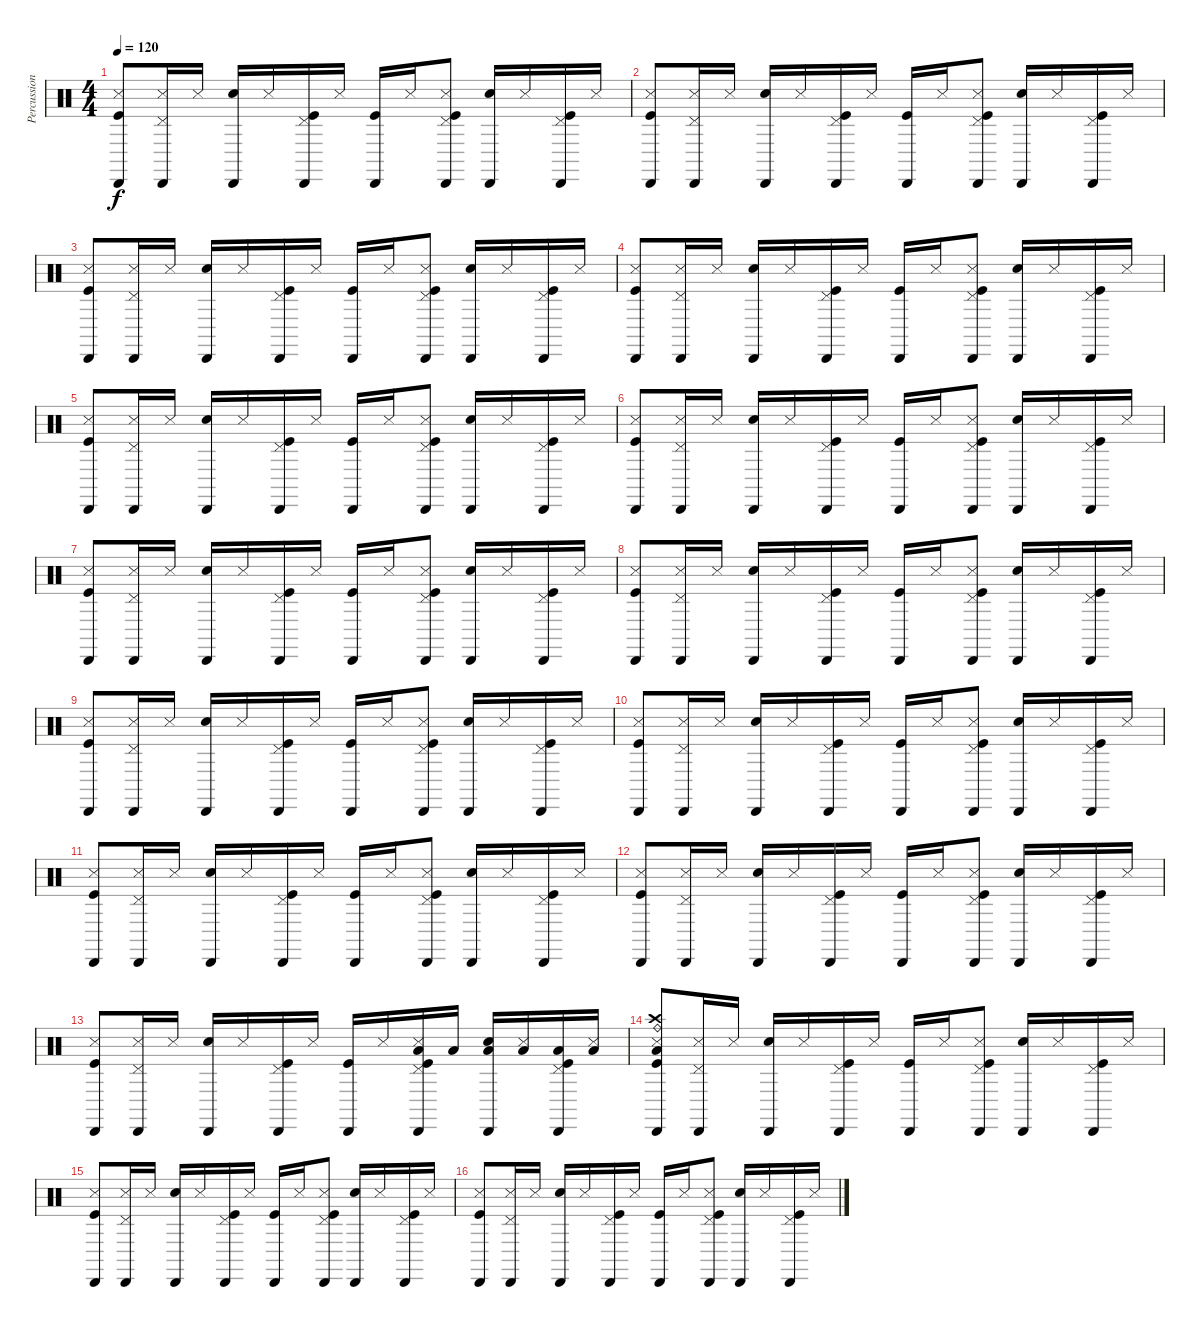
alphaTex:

\track ("Percussions" "Percussion") {instrument percussion}
\staff {score}
\articulation defaults
\ts (4 4)
\tempo 120
\clef neutral
\ks c
("Kick (hit)" "Cabasa (hit)" "Metronome (hit)").8{dy f} ("Cabasa (hit)" "Pedal Hi-Hat (hit)" "Metronome (hit)").16 "Metronome (hit)".16 ("Snare (hit) 2" "Cabasa (hit)").16 "Metronome (hit)".16 ("Kick (hit)" "Cabasa (hit)" "Pedal Hi-Hat (hit)").16 "Metronome (hit)".16 ("Kick (hit)" "Cabasa (hit)").16 "Metronome (hit)".16 ("Kick (hit)" "Cabasa (hit)" "Pedal Hi-Hat (hit)" "Metronome (hit)").8 ("Snare (hit) 2" "Cabasa (hit)").16 "Metronome (hit)".16 ("Kick (hit)" "Cabasa (hit)" "Pedal Hi-Hat (hit)").16 "Metronome (hit)".16 |
("Metronome (hit)" "Cabasa (hit)" "Kick (hit)").8 ("Cabasa (hit)" "Pedal Hi-Hat (hit)" "Metronome (hit)").16 "Metronome (hit)".16 ("Snare (hit) 2" "Cabasa (hit)").16 "Metronome (hit)".16 ("Kick (hit)" "Cabasa (hit)" "Pedal Hi-Hat (hit)").16 "Metronome (hit)".16 ("Kick (hit)" "Cabasa (hit)").16 "Metronome (hit)".16 ("Kick (hit)" "Cabasa (hit)" "Pedal Hi-Hat (hit)" "Metronome (hit)").8 ("Snare (hit) 2" "Cabasa (hit)").16 "Metronome (hit)".16 ("Kick (hit)" "Cabasa (hit)" "Pedal Hi-Hat (hit)").16 "Metronome (hit)".16 |
("Kick (hit)" "Cabasa (hit)" "Metronome (hit)").8 ("Cabasa (hit)" "Pedal Hi-Hat (hit)" "Metronome (hit)").16 "Metronome (hit)".16 ("Snare (hit) 2" "Cabasa (hit)").16 "Metronome (hit)".16 ("Kick (hit)" "Cabasa (hit)" "Pedal Hi-Hat (hit)").16 "Metronome (hit)".16 ("Kick (hit)" "Cabasa (hit)").16 "Metronome (hit)".16 ("Kick (hit)" "Cabasa (hit)" "Pedal Hi-Hat (hit)" "Metronome (hit)").8 ("Snare (hit) 2" "Cabasa (hit)").16 "Metronome (hit)".16 ("Kick (hit)" "Cabasa (hit)" "Pedal Hi-Hat (hit)").16 "Metronome (hit)".16 |
("Metronome (hit)" "Cabasa (hit)" "Kick (hit)").8 ("Cabasa (hit)" "Pedal Hi-Hat (hit)" "Metronome (hit)").16 "Metronome (hit)".16 ("Snare (hit) 2" "Cabasa (hit)").16 "Metronome (hit)".16 ("Kick (hit)" "Cabasa (hit)" "Pedal Hi-Hat (hit)").16 "Metronome (hit)".16 ("Kick (hit)" "Cabasa (hit)").16 "Metronome (hit)".16 ("Kick (hit)" "Cabasa (hit)" "Pedal Hi-Hat (hit)" "Metronome (hit)").8 ("Snare (hit) 2" "Cabasa (hit)").16 "Metronome (hit)".16 ("Kick (hit)" "Cabasa (hit)" "Pedal Hi-Hat (hit)").16 "Metronome (hit)".16 |
("Kick (hit)" "Cabasa (hit)" "Metronome (hit)").8 ("Cabasa (hit)" "Pedal Hi-Hat (hit)" "Metronome (hit)").16 "Metronome (hit)".16 ("Snare (hit) 2" "Cabasa (hit)").16 "Metronome (hit)".16 ("Kick (hit)" "Cabasa (hit)" "Pedal Hi-Hat (hit)").16 "Metronome (hit)".16 ("Kick (hit)" "Cabasa (hit)").16 "Metronome (hit)".16 ("Kick (hit)" "Cabasa (hit)" "Pedal Hi-Hat (hit)" "Metronome (hit)").8 ("Snare (hit) 2" "Cabasa (hit)").16 "Metronome (hit)".16 ("Kick (hit)" "Cabasa (hit)" "Pedal Hi-Hat (hit)").16 "Metronome (hit)".16 |
("Metronome (hit)" "Cabasa (hit)" "Kick (hit)").8 ("Cabasa (hit)" "Pedal Hi-Hat (hit)" "Metronome (hit)").16 "Metronome (hit)".16 ("Snare (hit) 2" "Cabasa (hit)").16 "Metronome (hit)".16 ("Kick (hit)" "Cabasa (hit)" "Pedal Hi-Hat (hit)").16 "Metronome (hit)".16 ("Kick (hit)" "Cabasa (hit)").16 "Metronome (hit)".16 ("Kick (hit)" "Cabasa (hit)" "Pedal Hi-Hat (hit)" "Metronome (hit)").8 ("Snare (hit) 2" "Cabasa (hit)").16 "Metronome (hit)".16 ("Kick (hit)" "Cabasa (hit)" "Pedal Hi-Hat (hit)").16 "Metronome (hit)".16 |
("Kick (hit)" "Cabasa (hit)" "Metronome (hit)").8 ("Cabasa (hit)" "Pedal Hi-Hat (hit)" "Metronome (hit)").16 "Metronome (hit)".16 ("Snare (hit) 2" "Cabasa (hit)").16 "Metronome (hit)".16 ("Kick (hit)" "Cabasa (hit)" "Pedal Hi-Hat (hit)").16 "Metronome (hit)".16 ("Kick (hit)" "Cabasa (hit)").16 "Metronome (hit)".16 ("Kick (hit)" "Cabasa (hit)" "Pedal Hi-Hat (hit)" "Metronome (hit)").8 ("Snare (hit) 2" "Cabasa (hit)").16 "Metronome (hit)".16 ("Kick (hit)" "Cabasa (hit)" "Pedal Hi-Hat (hit)").16 "Metronome (hit)".16 |
("Metronome (hit)" "Cabasa (hit)" "Kick (hit)").8 ("Cabasa (hit)" "Pedal Hi-Hat (hit)" "Metronome (hit)").16 "Metronome (hit)".16 ("Snare (hit) 2" "Cabasa (hit)").16 "Metronome (hit)".16 ("Kick (hit)" "Cabasa (hit)" "Pedal Hi-Hat (hit)").16 "Metronome (hit)".16 ("Kick (hit)" "Cabasa (hit)").16 "Metronome (hit)".16 ("Kick (hit)" "Cabasa (hit)" "Pedal Hi-Hat (hit)" "Metronome (hit)").8 ("Snare (hit) 2" "Cabasa (hit)").16 "Metronome (hit)".16 ("Kick (hit)" "Cabasa (hit)" "Pedal Hi-Hat (hit)").16 "Metronome (hit)".16 |
("Kick (hit)" "Cabasa (hit)" "Metronome (hit)").8 ("Cabasa (hit)" "Pedal Hi-Hat (hit)" "Metronome (hit)").16 "Metronome (hit)".16 ("Snare (hit) 2" "Cabasa (hit)").16 "Metronome (hit)".16 ("Kick (hit)" "Cabasa (hit)" "Pedal Hi-Hat (hit)").16 "Metronome (hit)".16 ("Kick (hit)" "Cabasa (hit)").16 "Metronome (hit)".16 ("Kick (hit)" "Cabasa (hit)" "Pedal Hi-Hat (hit)" "Metronome (hit)").8 ("Snare (hit) 2" "Cabasa (hit)").16 "Metronome (hit)".16 ("Kick (hit)" "Cabasa (hit)" "Pedal Hi-Hat (hit)").16 "Metronome (hit)".16 |
("Metronome (hit)" "Cabasa (hit)" "Kick (hit)").8 ("Cabasa (hit)" "Pedal Hi-Hat (hit)" "Metronome (hit)").16 "Metronome (hit)".16 ("Snare (hit) 2" "Cabasa (hit)").16 "Metronome (hit)".16 ("Kick (hit)" "Cabasa (hit)" "Pedal Hi-Hat (hit)").16 "Metronome (hit)".16 ("Kick (hit)" "Cabasa (hit)").16 "Metronome (hit)".16 ("Kick (hit)" "Cabasa (hit)" "Pedal Hi-Hat (hit)" "Metronome (hit)").8 ("Snare (hit) 2" "Cabasa (hit)").16 "Metronome (hit)".16 ("Kick (hit)" "Cabasa (hit)" "Pedal Hi-Hat (hit)").16 "Metronome (hit)".16 |
("Kick (hit)" "Cabasa (hit)" "Metronome (hit)").8 ("Cabasa (hit)" "Pedal Hi-Hat (hit)" "Metronome (hit)").16 "Metronome (hit)".16 ("Snare (hit) 2" "Cabasa (hit)").16 "Metronome (hit)".16 ("Kick (hit)" "Cabasa (hit)" "Pedal Hi-Hat (hit)").16 "Metronome (hit)".16 ("Kick (hit)" "Cabasa (hit)").16 "Metronome (hit)".16 ("Kick (hit)" "Cabasa (hit)" "Pedal Hi-Hat (hit)" "Metronome (hit)").8 ("Snare (hit) 2" "Cabasa (hit)").16 "Metronome (hit)".16 ("Kick (hit)" "Cabasa (hit)" "Pedal Hi-Hat (hit)").16 "Metronome (hit)".16 |
("Metronome (hit)" "Cabasa (hit)" "Kick (hit)").8 ("Cabasa (hit)" "Pedal Hi-Hat (hit)" "Metronome (hit)").16 "Metronome (hit)".16 ("Snare (hit) 2" "Cabasa (hit)").16 "Metronome (hit)".16 ("Kick (hit)" "Cabasa (hit)" "Pedal Hi-Hat (hit)").16 "Metronome (hit)".16 ("Kick (hit)" "Cabasa (hit)").16 "Metronome (hit)".16 ("Kick (hit)" "Cabasa (hit)" "Pedal Hi-Hat (hit)" "Metronome (hit)").8 ("Snare (hit) 2" "Cabasa (hit)").16 "Metronome (hit)".16 ("Kick (hit)" "Cabasa (hit)" "Pedal Hi-Hat (hit)").16 "Metronome (hit)".16 |
("Kick (hit)" "Cabasa (hit)" "Metronome (hit)").8 ("Cabasa (hit)" "Pedal Hi-Hat (hit)" "Metronome (hit)").16 "Metronome (hit)".16 ("Snare (hit) 2" "Cabasa (hit)").16 "Metronome (hit)".16 ("Kick (hit)" "Cabasa (hit)" "Pedal Hi-Hat (hit)").16 "Metronome (hit)".16 ("Kick (hit)" "Cabasa (hit)").16 "Metronome (hit)".16 ("Kick (hit)" "Cabasa (hit)" "Pedal Hi-Hat (hit)" "Metronome (hit)" "Low Floor Tom (hit)").16 "Low Floor Tom (hit)".16 ("Snare (hit) 2" "Cabasa (hit)" "Low Floor Tom (hit)").16 ("Metronome (hit)" "Low Floor Tom (hit)").16 ("Kick (hit)" "Cabasa (hit)" "Pedal Hi-Hat (hit)" "Low Floor Tom (hit)").16 ("Metronome (hit)" "Low Floor Tom (hit)").16 |
("Low Floor Tom (hit)" "Crash high (hit)" "Ride (bell)" "Kick (hit)" "Cabasa (hit)" "Metronome (hit)").8 ("Cabasa (hit)" "Pedal Hi-Hat (hit)" "Metronome (hit)").16 "Metronome (hit)".16 ("Snare (hit) 2" "Cabasa (hit)").16 "Metronome (hit)".16 ("Kick (hit)" "Cabasa (hit)" "Pedal Hi-Hat (hit)").16 "Metronome (hit)".16 ("Kick (hit)" "Cabasa (hit)").16 "Metronome (hit)".16 ("Kick (hit)" "Cabasa (hit)" "Pedal Hi-Hat (hit)" "Metronome (hit)").8 ("Snare (hit) 2" "Cabasa (hit)").16 "Metronome (hit)".16 ("Kick (hit)" "Cabasa (hit)" "Pedal Hi-Hat (hit)").16 "Metronome (hit)".16 |
("Kick (hit)" "Cabasa (hit)" "Metronome (hit)").8 ("Cabasa (hit)" "Pedal Hi-Hat (hit)" "Metronome (hit)").16 "Metronome (hit)".16 ("Snare (hit) 2" "Cabasa (hit)").16 "Metronome (hit)".16 ("Kick (hit)" "Cabasa (hit)" "Pedal Hi-Hat (hit)").16 "Metronome (hit)".16 ("Kick (hit)" "Cabasa (hit)").16 "Metronome (hit)".16 ("Kick (hit)" "Cabasa (hit)" "Pedal Hi-Hat (hit)" "Metronome (hit)").8 ("Snare (hit) 2" "Cabasa (hit)").16 "Metronome (hit)".16 ("Kick (hit)" "Cabasa (hit)" "Pedal Hi-Hat (hit)").16 "Metronome (hit)".16 |
("Kick (hit)" "Cabasa (hit)" "Metronome (hit)").8 ("Cabasa (hit)" "Pedal Hi-Hat (hit)" "Metronome (hit)").16 "Metronome (hit)".16 ("Snare (hit) 2" "Cabasa (hit)").16 "Metronome (hit)".16 ("Kick (hit)" "Cabasa (hit)" "Pedal Hi-Hat (hit)").16 "Metronome (hit)".16 ("Kick (hit)" "Cabasa (hit)").16 "Metronome (hit)".16 ("Kick (hit)" "Cabasa (hit)" "Pedal Hi-Hat (hit)" "Metronome (hit)").8 ("Snare (hit) 2" "Cabasa (hit)").16 "Metronome (hit)".16 ("Kick (hit)" "Cabasa (hit)" "Pedal Hi-Hat (hit)").16 "Metronome (hit)".16
